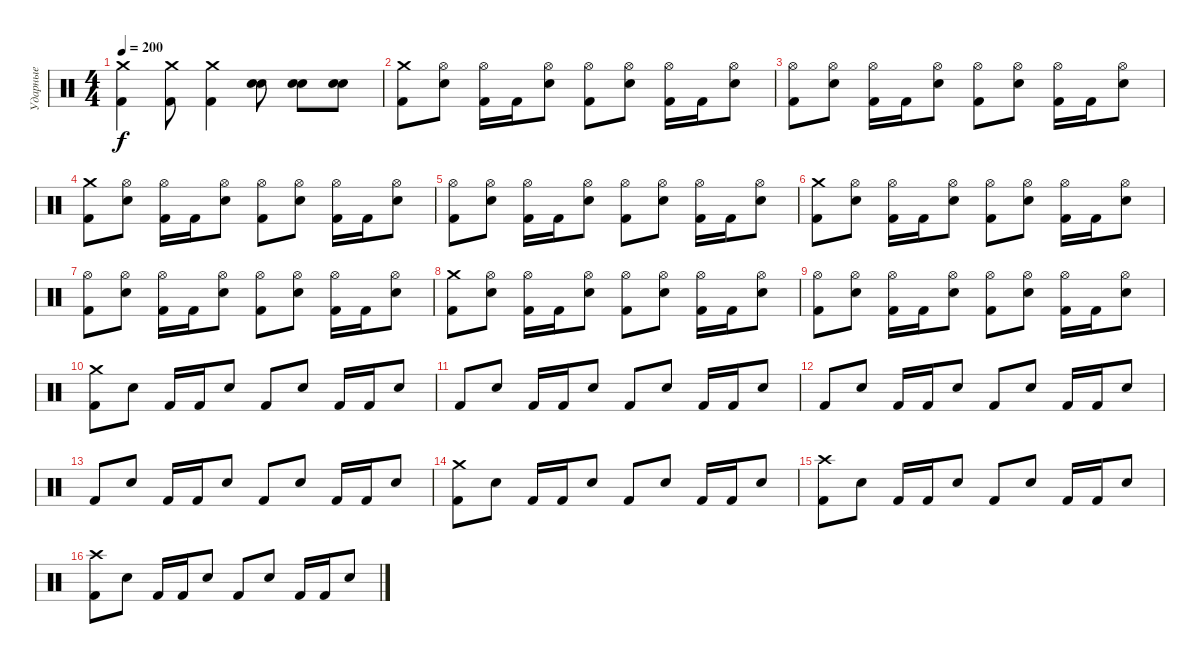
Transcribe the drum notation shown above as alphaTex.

\track ("Ударные" "Ударные") {instrument percussion}
\staff {score}
\articulation defaults
\ts (4 4)
\tempo 200
\clef neutral
\ks c
("Crash medium (hit)" "Kick (hit) 2").4{dy f} ("Crash medium (hit)" "Kick (hit) 2").8 ("Crash medium (hit)" "Kick (hit) 2").4 ("Electric Snare (hit)" "Electric Snare (hit)").8 ("Electric Snare (hit)" "Electric Snare (hit)").8 ("Electric Snare (hit)" "Electric Snare (hit)").8 |
("Crash medium (hit)" "Kick (hit) 2").8 ("Hi-Hat (open)" "Electric Snare (hit)").8 ("Hi-Hat (open)" "Kick (hit) 2").16 "Kick (hit) 2".16 ("Hi-Hat (open)" "Electric Snare (hit)").8 ("Hi-Hat (open)" "Kick (hit) 2").8 ("Hi-Hat (open)" "Electric Snare (hit)").8 ("Hi-Hat (open)" "Kick (hit) 2").16 "Kick (hit) 2".16 ("Hi-Hat (open)" "Electric Snare (hit)").8 |
("Hi-Hat (open)" "Kick (hit) 2").8 ("Hi-Hat (open)" "Electric Snare (hit)").8 ("Hi-Hat (open)" "Kick (hit) 2").16 "Kick (hit) 2".16 ("Hi-Hat (open)" "Electric Snare (hit)").8 ("Hi-Hat (open)" "Kick (hit) 2").8 ("Hi-Hat (open)" "Electric Snare (hit)").8 ("Hi-Hat (open)" "Kick (hit) 2").16 "Kick (hit) 2".16 ("Hi-Hat (open)" "Electric Snare (hit)").8 |
("Crash medium (hit)" "Kick (hit) 2").8 ("Hi-Hat (open)" "Electric Snare (hit)").8 ("Hi-Hat (open)" "Kick (hit) 2").16 "Kick (hit) 2".16 ("Hi-Hat (open)" "Electric Snare (hit)").8 ("Hi-Hat (open)" "Kick (hit) 2").8 ("Hi-Hat (open)" "Electric Snare (hit)").8 ("Hi-Hat (open)" "Kick (hit) 2").16 "Kick (hit) 2".16 ("Hi-Hat (open)" "Electric Snare (hit)").8 |
("Hi-Hat (open)" "Kick (hit) 2").8 ("Hi-Hat (open)" "Electric Snare (hit)").8 ("Hi-Hat (open)" "Kick (hit) 2").16 "Kick (hit) 2".16 ("Hi-Hat (open)" "Electric Snare (hit)").8 ("Hi-Hat (open)" "Kick (hit) 2").8 ("Hi-Hat (open)" "Electric Snare (hit)").8 ("Hi-Hat (open)" "Kick (hit) 2").16 "Kick (hit) 2".16 ("Hi-Hat (open)" "Electric Snare (hit)").8 |
("Crash medium (hit)" "Kick (hit) 2").8 ("Hi-Hat (open)" "Electric Snare (hit)").8 ("Hi-Hat (open)" "Kick (hit) 2").16 "Kick (hit) 2".16 ("Hi-Hat (open)" "Electric Snare (hit)").8 ("Hi-Hat (open)" "Kick (hit) 2").8 ("Hi-Hat (open)" "Electric Snare (hit)").8 ("Hi-Hat (open)" "Kick (hit) 2").16 "Kick (hit) 2".16 ("Hi-Hat (open)" "Electric Snare (hit)").8 |
("Hi-Hat (open)" "Kick (hit) 2").8 ("Hi-Hat (open)" "Electric Snare (hit)").8 ("Hi-Hat (open)" "Kick (hit) 2").16 "Kick (hit) 2".16 ("Hi-Hat (open)" "Electric Snare (hit)").8 ("Hi-Hat (open)" "Kick (hit) 2").8 ("Hi-Hat (open)" "Electric Snare (hit)").8 ("Hi-Hat (open)" "Kick (hit) 2").16 "Kick (hit) 2".16 ("Hi-Hat (open)" "Electric Snare (hit)").8 |
("Crash medium (hit)" "Kick (hit) 2").8 ("Hi-Hat (open)" "Electric Snare (hit)").8 ("Hi-Hat (open)" "Kick (hit) 2").16 "Kick (hit) 2".16 ("Hi-Hat (open)" "Electric Snare (hit)").8 ("Hi-Hat (open)" "Kick (hit) 2").8 ("Hi-Hat (open)" "Electric Snare (hit)").8 ("Hi-Hat (open)" "Kick (hit) 2").16 "Kick (hit) 2".16 ("Hi-Hat (open)" "Electric Snare (hit)").8 |
("Hi-Hat (open)" "Kick (hit) 2").8 ("Hi-Hat (open)" "Electric Snare (hit)").8 ("Hi-Hat (open)" "Kick (hit) 2").16 "Kick (hit) 2".16 ("Hi-Hat (open)" "Electric Snare (hit)").8 ("Hi-Hat (open)" "Kick (hit) 2").8 ("Hi-Hat (open)" "Electric Snare (hit)").8 ("Hi-Hat (open)" "Kick (hit) 2").16 "Kick (hit) 2".16 ("Hi-Hat (open)" "Electric Snare (hit)").8 |
("Crash medium (hit)" "Kick (hit) 2").8 "Electric Snare (hit)".8 "Kick (hit) 2".16 "Kick (hit) 2".16 "Electric Snare (hit)".8 "Kick (hit) 2".8 "Electric Snare (hit)".8 "Kick (hit) 2".16 "Kick (hit) 2".16 "Electric Snare (hit)".8 |
"Kick (hit) 2".8 "Electric Snare (hit)".8 "Kick (hit) 2".16 "Kick (hit) 2".16 "Electric Snare (hit)".8 "Kick (hit) 2".8 "Electric Snare (hit)".8 "Kick (hit) 2".16 "Kick (hit) 2".16 "Electric Snare (hit)".8 |
"Kick (hit) 2".8 "Electric Snare (hit)".8 "Kick (hit) 2".16 "Kick (hit) 2".16 "Electric Snare (hit)".8 "Kick (hit) 2".8 "Electric Snare (hit)".8 "Kick (hit) 2".16 "Kick (hit) 2".16 "Electric Snare (hit)".8 |
"Kick (hit) 2".8 "Electric Snare (hit)".8 "Kick (hit) 2".16 "Kick (hit) 2".16 "Electric Snare (hit)".8 "Kick (hit) 2".8 "Electric Snare (hit)".8 "Kick (hit) 2".16 "Kick (hit) 2".16 "Electric Snare (hit)".8 |
("Crash medium (hit)" "Kick (hit) 2").8 "Electric Snare (hit)".8 "Kick (hit) 2".16 "Kick (hit) 2".16 "Electric Snare (hit)".8 "Kick (hit) 2".8 "Electric Snare (hit)".8 "Kick (hit) 2".16 "Kick (hit) 2".16 "Electric Snare (hit)".8 |
("Crash high (hit)" "Kick (hit) 2").8 "Electric Snare (hit)".8 "Kick (hit) 2".16 "Kick (hit) 2".16 "Electric Snare (hit)".8 "Kick (hit) 2".8 "Electric Snare (hit)".8 "Kick (hit) 2".16 "Kick (hit) 2".16 "Electric Snare (hit)".8 |
("Crash high (hit)" "Kick (hit) 2").8 "Electric Snare (hit)".8 "Kick (hit) 2".16 "Kick (hit) 2".16 "Electric Snare (hit)".8 "Kick (hit) 2".8 "Electric Snare (hit)".8 "Kick (hit) 2".16 "Kick (hit) 2".16 "Electric Snare (hit)".8
